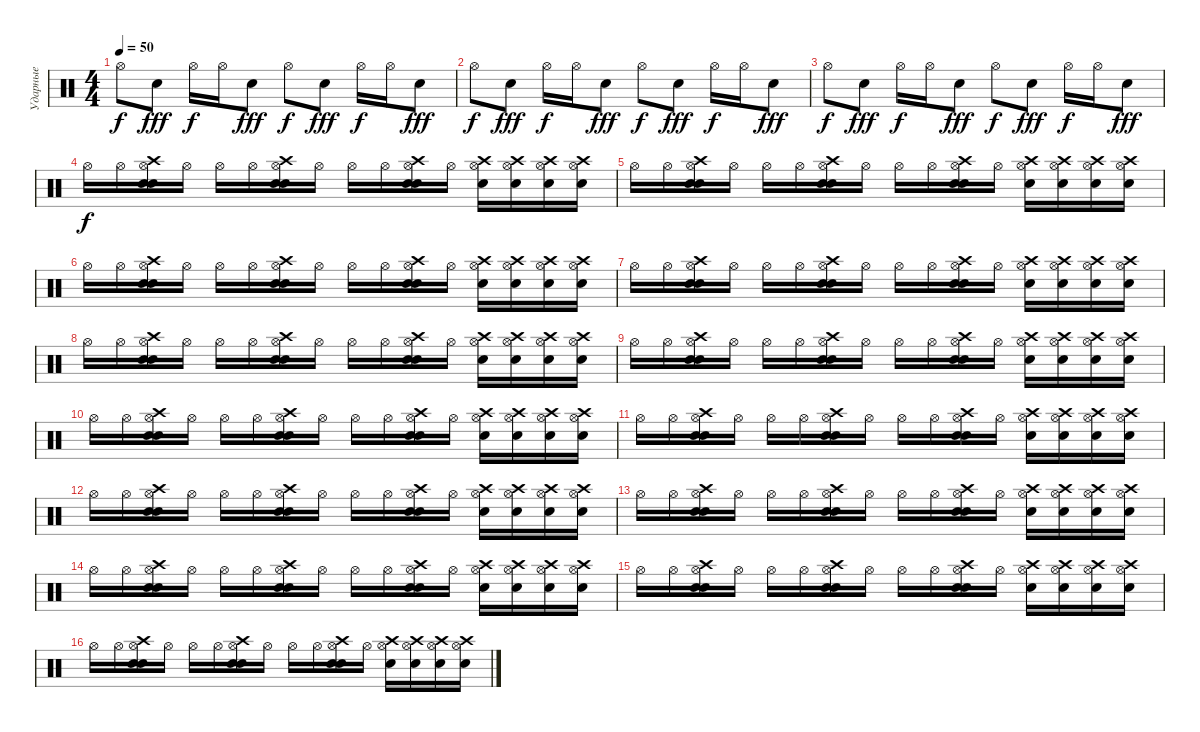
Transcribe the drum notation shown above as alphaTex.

\track ("Ударные" "Ударные") {instrument percussion}
\staff {score}
\articulation defaults
\ts (4 4)
\tempo 50
\clef neutral
\ks c "Hi-Hat (open)".8{dy f} "Electric Snare (hit)".8{dy fff} "Hi-Hat (open)".16{dy f} "Hi-Hat (open)".16 "Electric Snare (hit)".8{dy fff} "Hi-Hat (open)".8{dy f} "Electric Snare (hit)".8{dy fff} "Hi-Hat (open)".16{dy f} "Hi-Hat (open)".16 "Electric Snare (hit)".8{dy fff}
|
"Hi-Hat (open)".8{dy f} "Electric Snare (hit)".8{dy fff} "Hi-Hat (open)".16{dy f} "Hi-Hat (open)".16 "Electric Snare (hit)".8{dy fff} "Hi-Hat (open)".8{dy f} "Electric Snare (hit)".8{dy fff} "Hi-Hat (open)".16{dy f} "Hi-Hat (open)".16 "Electric Snare (hit)".8{dy fff} |
"Hi-Hat (open)".8{dy f} "Electric Snare (hit)".8{dy fff} "Hi-Hat (open)".16{dy f} "Hi-Hat (open)".16 "Electric Snare (hit)".8{dy fff} "Hi-Hat (open)".8{dy f} "Electric Snare (hit)".8{dy fff} "Hi-Hat (open)".16{dy f} "Hi-Hat (open)".16 "Electric Snare (hit)".8{dy fff} |
"Hi-Hat (open)".16{dy f} "Hi-Hat (open)".16 ("Hi-Hat (open)" "Snare (hit) 2" "Crash high (hit)" "Electric Snare (hit)").16 "Hi-Hat (open)".16 "Hi-Hat (open)".16 "Hi-Hat (open)".16 ("Hi-Hat (open)" "Snare (hit) 2" "Crash high (hit)" "Electric Snare (hit)").16 "Hi-Hat (open)".16 "Hi-Hat (open)".16 "Hi-Hat (open)".16 ("Hi-Hat (open)" "Snare (hit) 2" "Crash high (hit)" "Electric Snare (hit)").16 "Hi-Hat (open)".16 ("Hi-Hat (open)" "Snare (hit) 2" "Crash high (hit)").16 ("Hi-Hat (open)" "Snare (hit) 2" "Crash high (hit)").16 ("Hi-Hat (open)" "Snare (hit) 2" "Crash high (hit)").16 ("Hi-Hat (open)" "Snare (hit) 2" "Crash high (hit)").16 |
"Hi-Hat (open)".16 "Hi-Hat (open)".16 ("Hi-Hat (open)" "Snare (hit) 2" "Crash high (hit)" "Electric Snare (hit)").16 "Hi-Hat (open)".16 "Hi-Hat (open)".16 "Hi-Hat (open)".16 ("Hi-Hat (open)" "Snare (hit) 2" "Crash high (hit)" "Electric Snare (hit)").16 "Hi-Hat (open)".16 "Hi-Hat (open)".16 "Hi-Hat (open)".16 ("Hi-Hat (open)" "Snare (hit) 2" "Crash high (hit)" "Electric Snare (hit)").16 "Hi-Hat (open)".16 ("Hi-Hat (open)" "Snare (hit) 2" "Crash high (hit)").16 ("Hi-Hat (open)" "Snare (hit) 2" "Crash high (hit)").16 ("Hi-Hat (open)" "Snare (hit) 2" "Crash high (hit)").16 ("Hi-Hat (open)" "Snare (hit) 2" "Crash high (hit)").16 |
"Hi-Hat (open)".16 "Hi-Hat (open)".16 ("Hi-Hat (open)" "Snare (hit) 2" "Crash high (hit)" "Electric Snare (hit)").16 "Hi-Hat (open)".16 "Hi-Hat (open)".16 "Hi-Hat (open)".16 ("Hi-Hat (open)" "Snare (hit) 2" "Crash high (hit)" "Electric Snare (hit)").16 "Hi-Hat (open)".16 "Hi-Hat (open)".16 "Hi-Hat (open)".16 ("Hi-Hat (open)" "Snare (hit) 2" "Crash high (hit)" "Electric Snare (hit)").16 "Hi-Hat (open)".16 ("Hi-Hat (open)" "Snare (hit) 2" "Crash high (hit)").16 ("Hi-Hat (open)" "Snare (hit) 2" "Crash high (hit)").16 ("Hi-Hat (open)" "Snare (hit) 2" "Crash high (hit)").16 ("Hi-Hat (open)" "Snare (hit) 2" "Crash high (hit)").16 |
"Hi-Hat (open)".16 "Hi-Hat (open)".16 ("Hi-Hat (open)" "Snare (hit) 2" "Crash high (hit)" "Electric Snare (hit)").16 "Hi-Hat (open)".16 "Hi-Hat (open)".16 "Hi-Hat (open)".16 ("Hi-Hat (open)" "Snare (hit) 2" "Crash high (hit)" "Electric Snare (hit)").16 "Hi-Hat (open)".16 "Hi-Hat (open)".16 "Hi-Hat (open)".16 ("Hi-Hat (open)" "Snare (hit) 2" "Crash high (hit)" "Electric Snare (hit)").16 "Hi-Hat (open)".16 ("Hi-Hat (open)" "Snare (hit) 2" "Crash high (hit)").16 ("Hi-Hat (open)" "Snare (hit) 2" "Crash high (hit)").16 ("Hi-Hat (open)" "Snare (hit) 2" "Crash high (hit)").16 ("Hi-Hat (open)" "Snare (hit) 2" "Crash high (hit)").16 |
"Hi-Hat (open)".16 "Hi-Hat (open)".16 ("Hi-Hat (open)" "Snare (hit) 2" "Crash high (hit)" "Electric Snare (hit)").16 "Hi-Hat (open)".16 "Hi-Hat (open)".16 "Hi-Hat (open)".16 ("Hi-Hat (open)" "Snare (hit) 2" "Crash high (hit)" "Electric Snare (hit)").16 "Hi-Hat (open)".16 "Hi-Hat (open)".16 "Hi-Hat (open)".16 ("Hi-Hat (open)" "Snare (hit) 2" "Crash high (hit)" "Electric Snare (hit)").16 "Hi-Hat (open)".16 ("Hi-Hat (open)" "Snare (hit) 2" "Crash high (hit)").16 ("Hi-Hat (open)" "Snare (hit) 2" "Crash high (hit)").16 ("Hi-Hat (open)" "Snare (hit) 2" "Crash high (hit)").16 ("Hi-Hat (open)" "Snare (hit) 2" "Crash high (hit)").16 |
"Hi-Hat (open)".16 "Hi-Hat (open)".16 ("Hi-Hat (open)" "Snare (hit) 2" "Crash high (hit)" "Electric Snare (hit)").16 "Hi-Hat (open)".16 "Hi-Hat (open)".16 "Hi-Hat (open)".16 ("Hi-Hat (open)" "Snare (hit) 2" "Crash high (hit)" "Electric Snare (hit)").16 "Hi-Hat (open)".16 "Hi-Hat (open)".16 "Hi-Hat (open)".16 ("Hi-Hat (open)" "Snare (hit) 2" "Crash high (hit)" "Electric Snare (hit)").16 "Hi-Hat (open)".16 ("Hi-Hat (open)" "Snare (hit) 2" "Crash high (hit)").16 ("Hi-Hat (open)" "Snare (hit) 2" "Crash high (hit)").16 ("Hi-Hat (open)" "Snare (hit) 2" "Crash high (hit)").16 ("Hi-Hat (open)" "Snare (hit) 2" "Crash high (hit)").16 |
"Hi-Hat (open)".16 "Hi-Hat (open)".16 ("Hi-Hat (open)" "Snare (hit) 2" "Crash high (hit)" "Electric Snare (hit)").16 "Hi-Hat (open)".16 "Hi-Hat (open)".16 "Hi-Hat (open)".16 ("Hi-Hat (open)" "Snare (hit) 2" "Crash high (hit)" "Electric Snare (hit)").16 "Hi-Hat (open)".16 "Hi-Hat (open)".16 "Hi-Hat (open)".16 ("Hi-Hat (open)" "Snare (hit) 2" "Crash high (hit)" "Electric Snare (hit)").16 "Hi-Hat (open)".16 ("Hi-Hat (open)" "Snare (hit) 2" "Crash high (hit)").16 ("Hi-Hat (open)" "Snare (hit) 2" "Crash high (hit)").16 ("Hi-Hat (open)" "Snare (hit) 2" "Crash high (hit)").16 ("Hi-Hat (open)" "Snare (hit) 2" "Crash high (hit)").16 |
"Hi-Hat (open)".16 "Hi-Hat (open)".16 ("Hi-Hat (open)" "Snare (hit) 2" "Crash high (hit)" "Electric Snare (hit)").16 "Hi-Hat (open)".16 "Hi-Hat (open)".16 "Hi-Hat (open)".16 ("Hi-Hat (open)" "Snare (hit) 2" "Crash high (hit)" "Electric Snare (hit)").16 "Hi-Hat (open)".16 "Hi-Hat (open)".16 "Hi-Hat (open)".16 ("Hi-Hat (open)" "Snare (hit) 2" "Crash high (hit)" "Electric Snare (hit)").16 "Hi-Hat (open)".16 ("Hi-Hat (open)" "Snare (hit) 2" "Crash high (hit)").16 ("Hi-Hat (open)" "Snare (hit) 2" "Crash high (hit)").16 ("Hi-Hat (open)" "Snare (hit) 2" "Crash high (hit)").16 ("Hi-Hat (open)" "Snare (hit) 2" "Crash high (hit)").16 |
"Hi-Hat (open)".16 "Hi-Hat (open)".16 ("Hi-Hat (open)" "Snare (hit) 2" "Crash high (hit)" "Electric Snare (hit)").16 "Hi-Hat (open)".16 "Hi-Hat (open)".16 "Hi-Hat (open)".16 ("Hi-Hat (open)" "Snare (hit) 2" "Crash high (hit)" "Electric Snare (hit)").16 "Hi-Hat (open)".16 "Hi-Hat (open)".16 "Hi-Hat (open)".16 ("Hi-Hat (open)" "Snare (hit) 2" "Crash high (hit)" "Electric Snare (hit)").16 "Hi-Hat (open)".16 ("Hi-Hat (open)" "Snare (hit) 2" "Crash high (hit)").16 ("Hi-Hat (open)" "Snare (hit) 2" "Crash high (hit)").16 ("Hi-Hat (open)" "Snare (hit) 2" "Crash high (hit)").16 ("Hi-Hat (open)" "Snare (hit) 2" "Crash high (hit)").16 |
"Hi-Hat (open)".16 "Hi-Hat (open)".16 ("Hi-Hat (open)" "Snare (hit) 2" "Crash high (hit)" "Electric Snare (hit)").16 "Hi-Hat (open)".16 "Hi-Hat (open)".16 "Hi-Hat (open)".16 ("Hi-Hat (open)" "Snare (hit) 2" "Crash high (hit)" "Electric Snare (hit)").16 "Hi-Hat (open)".16 "Hi-Hat (open)".16 "Hi-Hat (open)".16 ("Hi-Hat (open)" "Snare (hit) 2" "Crash high (hit)" "Electric Snare (hit)").16 "Hi-Hat (open)".16 ("Hi-Hat (open)" "Snare (hit) 2" "Crash high (hit)").16 ("Hi-Hat (open)" "Snare (hit) 2" "Crash high (hit)").16 ("Hi-Hat (open)" "Snare (hit) 2" "Crash high (hit)").16 ("Hi-Hat (open)" "Snare (hit) 2" "Crash high (hit)").16 |
"Hi-Hat (open)".16 "Hi-Hat (open)".16 ("Hi-Hat (open)" "Snare (hit) 2" "Crash high (hit)" "Electric Snare (hit)").16 "Hi-Hat (open)".16 "Hi-Hat (open)".16 "Hi-Hat (open)".16 ("Hi-Hat (open)" "Snare (hit) 2" "Crash high (hit)" "Electric Snare (hit)").16 "Hi-Hat (open)".16 "Hi-Hat (open)".16 "Hi-Hat (open)".16 ("Hi-Hat (open)" "Snare (hit) 2" "Crash high (hit)" "Electric Snare (hit)").16 "Hi-Hat (open)".16 ("Hi-Hat (open)" "Snare (hit) 2" "Crash high (hit)").16 ("Hi-Hat (open)" "Snare (hit) 2" "Crash high (hit)").16 ("Hi-Hat (open)" "Snare (hit) 2" "Crash high (hit)").16 ("Hi-Hat (open)" "Snare (hit) 2" "Crash high (hit)").16 |
"Hi-Hat (open)".16 "Hi-Hat (open)".16 ("Hi-Hat (open)" "Snare (hit) 2" "Crash high (hit)" "Electric Snare (hit)").16 "Hi-Hat (open)".16 "Hi-Hat (open)".16 "Hi-Hat (open)".16 ("Hi-Hat (open)" "Snare (hit) 2" "Crash high (hit)" "Electric Snare (hit)").16 "Hi-Hat (open)".16 "Hi-Hat (open)".16 "Hi-Hat (open)".16 ("Hi-Hat (open)" "Snare (hit) 2" "Crash high (hit)" "Electric Snare (hit)").16 "Hi-Hat (open)".16 ("Hi-Hat (open)" "Snare (hit) 2" "Crash high (hit)").16 ("Hi-Hat (open)" "Snare (hit) 2" "Crash high (hit)").16 ("Hi-Hat (open)" "Snare (hit) 2" "Crash high (hit)").16 ("Hi-Hat (open)" "Snare (hit) 2" "Crash high (hit)").16 |
"Hi-Hat (open)".16 "Hi-Hat (open)".16 ("Hi-Hat (open)" "Snare (hit) 2" "Crash high (hit)" "Electric Snare (hit)").16 "Hi-Hat (open)".16 "Hi-Hat (open)".16 "Hi-Hat (open)".16 ("Hi-Hat (open)" "Snare (hit) 2" "Crash high (hit)" "Electric Snare (hit)").16 "Hi-Hat (open)".16 "Hi-Hat (open)".16 "Hi-Hat (open)".16 ("Hi-Hat (open)" "Snare (hit) 2" "Crash high (hit)" "Electric Snare (hit)").16 "Hi-Hat (open)".16 ("Hi-Hat (open)" "Snare (hit) 2" "Crash high (hit)").16 ("Hi-Hat (open)" "Snare (hit) 2" "Crash high (hit)").16 ("Hi-Hat (open)" "Snare (hit) 2" "Crash high (hit)").16 ("Hi-Hat (open)" "Snare (hit) 2" "Crash high (hit)").16
